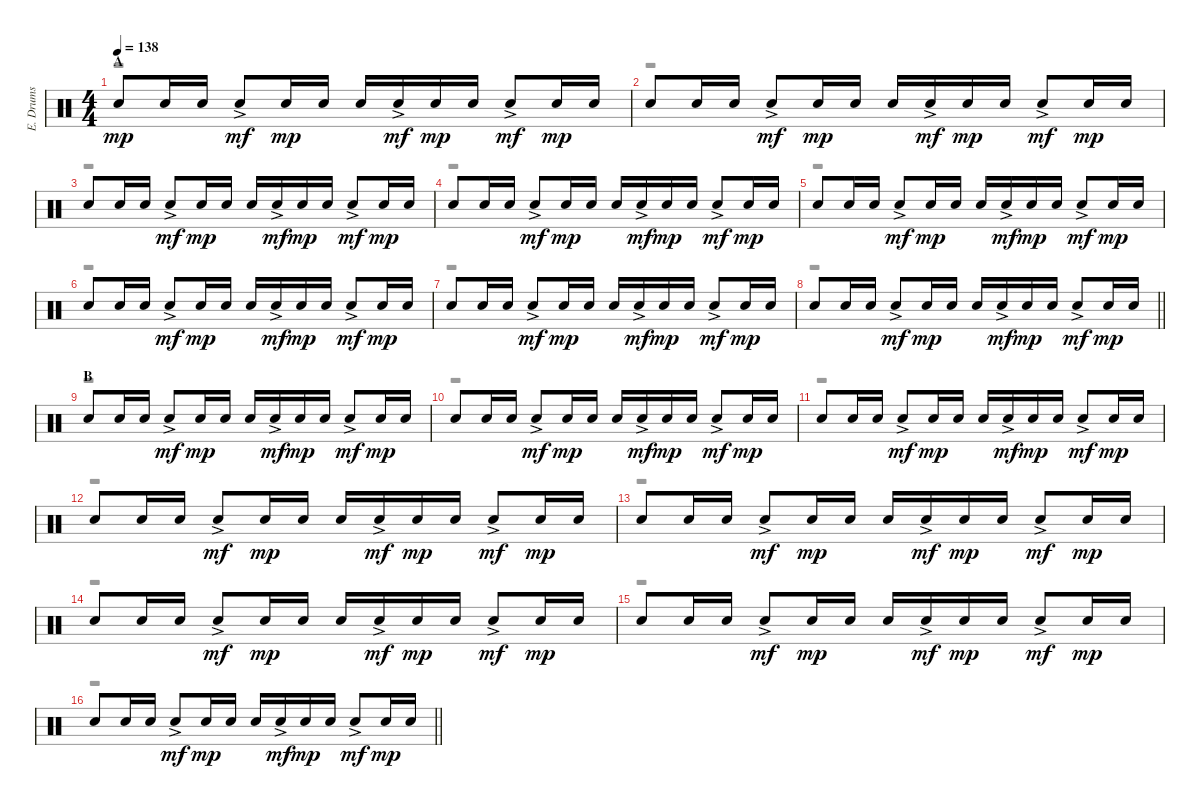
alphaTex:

\track ("E. Drums" "E. Drums") {instrument percussion}
\staff {score}
\articulation defaults
\voice
\ts (4 4)
\section ("" "A")
\tempo 138
\clef neutral
\ks c "Electric Snare (hit)".8{dy mp} "Electric Snare (hit)".16 "Electric Snare (hit)".16 "Electric Snare (hit)"{ac}.8{dy mf} "Electric Snare (hit)".16{dy mp} "Electric Snare (hit)".16 "Electric Snare (hit)".16 "Electric Snare (hit)"{ac}.16{dy mf} "Electric Snare (hit)".16{dy mp} "Electric Snare (hit)".16 "Electric Snare (hit)"{ac}.8{dy mf} "Electric Snare (hit)".16{dy mp} "Electric Snare (hit)".16
|
"Electric Snare (hit)".8 "Electric Snare (hit)".16 "Electric Snare (hit)".16 "Electric Snare (hit)"{ac}.8{dy mf} "Electric Snare (hit)".16{dy mp} "Electric Snare (hit)".16 "Electric Snare (hit)".16 "Electric Snare (hit)"{ac}.16{dy mf} "Electric Snare (hit)".16{dy mp} "Electric Snare (hit)".16 "Electric Snare (hit)"{ac}.8{dy mf} "Electric Snare (hit)".16{dy mp} "Electric Snare (hit)".16 |
"Electric Snare (hit)".8 "Electric Snare (hit)".16 "Electric Snare (hit)".16 "Electric Snare (hit)"{ac}.8{dy mf} "Electric Snare (hit)".16{dy mp} "Electric Snare (hit)".16 "Electric Snare (hit)".16 "Electric Snare (hit)"{ac}.16{dy mf} "Electric Snare (hit)".16{dy mp} "Electric Snare (hit)".16 "Electric Snare (hit)"{ac}.8{dy mf} "Electric Snare (hit)".16{dy mp} "Electric Snare (hit)".16 |
"Electric Snare (hit)".8 "Electric Snare (hit)".16 "Electric Snare (hit)".16 "Electric Snare (hit)"{ac}.8{dy mf} "Electric Snare (hit)".16{dy mp} "Electric Snare (hit)".16 "Electric Snare (hit)".16 "Electric Snare (hit)"{ac}.16{dy mf} "Electric Snare (hit)".16{dy mp} "Electric Snare (hit)".16 "Electric Snare (hit)"{ac}.8{dy mf} "Electric Snare (hit)".16{dy mp} "Electric Snare (hit)".16 |
"Electric Snare (hit)".8 "Electric Snare (hit)".16 "Electric Snare (hit)".16 "Electric Snare (hit)"{ac}.8{dy mf} "Electric Snare (hit)".16{dy mp} "Electric Snare (hit)".16 "Electric Snare (hit)".16 "Electric Snare (hit)"{ac}.16{dy mf} "Electric Snare (hit)".16{dy mp} "Electric Snare (hit)".16 "Electric Snare (hit)"{ac}.8{dy mf} "Electric Snare (hit)".16{dy mp} "Electric Snare (hit)".16 |
"Electric Snare (hit)".8 "Electric Snare (hit)".16 "Electric Snare (hit)".16 "Electric Snare (hit)"{ac}.8{dy mf} "Electric Snare (hit)".16{dy mp} "Electric Snare (hit)".16 "Electric Snare (hit)".16 "Electric Snare (hit)"{ac}.16{dy mf} "Electric Snare (hit)".16{dy mp} "Electric Snare (hit)".16 "Electric Snare (hit)"{ac}.8{dy mf} "Electric Snare (hit)".16{dy mp} "Electric Snare (hit)".16 |
"Electric Snare (hit)".8 "Electric Snare (hit)".16 "Electric Snare (hit)".16 "Electric Snare (hit)"{ac}.8{dy mf} "Electric Snare (hit)".16{dy mp} "Electric Snare (hit)".16 "Electric Snare (hit)".16 "Electric Snare (hit)"{ac}.16{dy mf} "Electric Snare (hit)".16{dy mp} "Electric Snare (hit)".16 "Electric Snare (hit)"{ac}.8{dy mf} "Electric Snare (hit)".16{dy mp} "Electric Snare (hit)".16 |
\barLineRight lightlight "Electric Snare (hit)".8 "Electric Snare (hit)".16 "Electric Snare (hit)".16 "Electric Snare (hit)"{ac}.8{dy mf} "Electric Snare (hit)".16{dy mp} "Electric Snare (hit)".16 "Electric Snare (hit)".16 "Electric Snare (hit)"{ac}.16{dy mf} "Electric Snare (hit)".16{dy mp} "Electric Snare (hit)".16 "Electric Snare (hit)"{ac}.8{dy mf} "Electric Snare (hit)".16{dy mp} "Electric Snare (hit)".16
|
\section ("" "B")
"Electric Snare (hit)".8 "Electric Snare (hit)".16 "Electric Snare (hit)".16 "Electric Snare (hit)"{ac}.8{dy mf} "Electric Snare (hit)".16{dy mp} "Electric Snare (hit)".16 "Electric Snare (hit)".16 "Electric Snare (hit)"{ac}.16{dy mf} "Electric Snare (hit)".16{dy mp} "Electric Snare (hit)".16 "Electric Snare (hit)"{ac}.8{dy mf} "Electric Snare (hit)".16{dy mp} "Electric Snare (hit)".16 |
"Electric Snare (hit)".8 "Electric Snare (hit)".16 "Electric Snare (hit)".16 "Electric Snare (hit)"{ac}.8{dy mf} "Electric Snare (hit)".16{dy mp} "Electric Snare (hit)".16 "Electric Snare (hit)".16 "Electric Snare (hit)"{ac}.16{dy mf} "Electric Snare (hit)".16{dy mp} "Electric Snare (hit)".16 "Electric Snare (hit)"{ac}.8{dy mf} "Electric Snare (hit)".16{dy mp} "Electric Snare (hit)".16 |
"Electric Snare (hit)".8 "Electric Snare (hit)".16 "Electric Snare (hit)".16 "Electric Snare (hit)"{ac}.8{dy mf} "Electric Snare (hit)".16{dy mp} "Electric Snare (hit)".16 "Electric Snare (hit)".16 "Electric Snare (hit)"{ac}.16{dy mf} "Electric Snare (hit)".16{dy mp} "Electric Snare (hit)".16 "Electric Snare (hit)"{ac}.8{dy mf} "Electric Snare (hit)".16{dy mp} "Electric Snare (hit)".16 |
"Electric Snare (hit)".8 "Electric Snare (hit)".16 "Electric Snare (hit)".16 "Electric Snare (hit)"{ac}.8{dy mf} "Electric Snare (hit)".16{dy mp} "Electric Snare (hit)".16 "Electric Snare (hit)".16 "Electric Snare (hit)"{ac}.16{dy mf} "Electric Snare (hit)".16{dy mp} "Electric Snare (hit)".16 "Electric Snare (hit)"{ac}.8{dy mf} "Electric Snare (hit)".16{dy mp} "Electric Snare (hit)".16 |
"Electric Snare (hit)".8 "Electric Snare (hit)".16 "Electric Snare (hit)".16 "Electric Snare (hit)"{ac}.8{dy mf} "Electric Snare (hit)".16{dy mp} "Electric Snare (hit)".16 "Electric Snare (hit)".16 "Electric Snare (hit)"{ac}.16{dy mf} "Electric Snare (hit)".16{dy mp} "Electric Snare (hit)".16 "Electric Snare (hit)"{ac}.8{dy mf} "Electric Snare (hit)".16{dy mp} "Electric Snare (hit)".16 |
"Electric Snare (hit)".8 "Electric Snare (hit)".16 "Electric Snare (hit)".16 "Electric Snare (hit)"{ac}.8{dy mf} "Electric Snare (hit)".16{dy mp} "Electric Snare (hit)".16 "Electric Snare (hit)".16 "Electric Snare (hit)"{ac}.16{dy mf} "Electric Snare (hit)".16{dy mp} "Electric Snare (hit)".16 "Electric Snare (hit)"{ac}.8{dy mf} "Electric Snare (hit)".16{dy mp} "Electric Snare (hit)".16 |
"Electric Snare (hit)".8 "Electric Snare (hit)".16 "Electric Snare (hit)".16 "Electric Snare (hit)"{ac}.8{dy mf} "Electric Snare (hit)".16{dy mp} "Electric Snare (hit)".16 "Electric Snare (hit)".16 "Electric Snare (hit)"{ac}.16{dy mf} "Electric Snare (hit)".16{dy mp} "Electric Snare (hit)".16 "Electric Snare (hit)"{ac}.8{dy mf} "Electric Snare (hit)".16{dy mp} "Electric Snare (hit)".16 |
\barLineRight lightlight "Electric Snare (hit)".8 "Electric Snare (hit)".16 "Electric Snare (hit)".16 "Electric Snare (hit)"{ac}.8{dy mf} "Electric Snare (hit)".16{dy mp} "Electric Snare (hit)".16 "Electric Snare (hit)".16 "Electric Snare (hit)"{ac}.16{dy mf} "Electric Snare (hit)".16{dy mp} "Electric Snare (hit)".16 "Electric Snare (hit)"{ac}.8{dy mf} "Electric Snare (hit)".16{dy mp} "Electric Snare (hit)".16
\voice
\clef neutral
\ottava regular
\simile none
\ks c
r.1{dy fff} |
r.1 |
r.1 |
r.1 |
r.1 |
r.1 |
r.1 |
\barLineRight lightlight
r.1 |
r.1 |
r.1 |
r.1 |
r.1 |
r.1 |
r.1 |
r.1 |
\barLineRight lightlight
r.1
